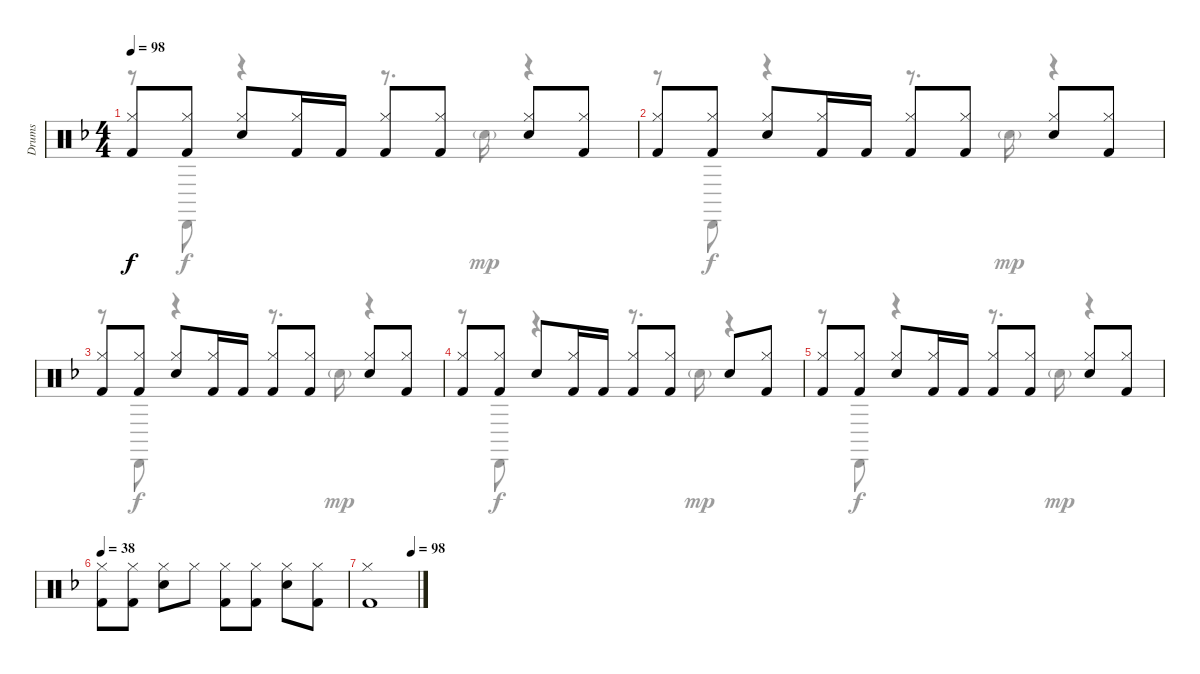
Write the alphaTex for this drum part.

\track ("Drums" "Drums") {instrument percussion}
\staff {score}
\articulation defaults
\voice
\ts (4 4)
\tempo 98
\clef neutral
\ks f
("Hi-Hat (closed)" "Kick (hit) 2").8{dy f} ("Hi-Hat (closed)" "Kick (hit) 2").8 ("Hi-Hat (closed)" "Electric Snare (hit)").8 ("Hi-Hat (closed)" "Kick (hit) 2").16 "Kick (hit) 2".16 ("Hi-Hat (closed)" "Kick (hit) 2").8 ("Hi-Hat (closed)" "Kick (hit) 2").8 ("Hi-Hat (closed)" "Electric Snare (hit)").8 ("Hi-Hat (closed)" "Kick (hit) 2").8 |
("Hi-Hat (closed)" "Kick (hit) 2").8 ("Hi-Hat (closed)" "Kick (hit) 2").8 ("Hi-Hat (closed)" "Electric Snare (hit)").8 ("Hi-Hat (closed)" "Kick (hit) 2").16 "Kick (hit) 2".16 ("Hi-Hat (closed)" "Kick (hit) 2").8 ("Hi-Hat (closed)" "Kick (hit) 2").8 ("Hi-Hat (closed)" "Electric Snare (hit)").8 ("Hi-Hat (closed)" "Kick (hit) 2").8 |
("Hi-Hat (closed)" "Kick (hit) 2").8 ("Hi-Hat (closed)" "Kick (hit) 2").8 ("Hi-Hat (closed)" "Electric Snare (hit)").8 ("Hi-Hat (closed)" "Kick (hit) 2").16 "Kick (hit) 2".16 ("Hi-Hat (closed)" "Kick (hit) 2").8 ("Hi-Hat (closed)" "Kick (hit) 2").8 ("Hi-Hat (closed)" "Electric Snare (hit)").8 ("Hi-Hat (closed)" "Kick (hit) 2").8 |
("Hi-Hat (closed)" "Kick (hit) 2").8 ("Hi-Hat (closed)" "Kick (hit) 2").8 "Electric Snare (hit)".8 ("Hi-Hat (closed)" "Kick (hit) 2").16 "Kick (hit) 2".16 ("Hi-Hat (closed)" "Kick (hit) 2").8 ("Hi-Hat (closed)" "Kick (hit) 2").8 "Electric Snare (hit)".8 ("Hi-Hat (closed)" "Kick (hit) 2").8 |
("Hi-Hat (closed)" "Kick (hit) 2").8 ("Hi-Hat (closed)" "Kick (hit) 2").8 ("Hi-Hat (closed)" "Electric Snare (hit)").8 ("Hi-Hat (closed)" "Kick (hit) 2").16 "Kick (hit) 2".16 ("Hi-Hat (closed)" "Kick (hit) 2").8 ("Hi-Hat (closed)" "Kick (hit) 2").8 ("Hi-Hat (closed)" "Electric Snare (hit)").8 ("Hi-Hat (closed)" "Kick (hit) 2").8 |
\tempo 38
("Hi-Hat (closed)" "Kick (hit) 2").8 ("Hi-Hat (closed)" "Kick (hit) 2").8 ("Hi-Hat (closed)" "Electric Snare (hit)").8 "Hi-Hat (closed)".8 ("Hi-Hat (closed)" "Kick (hit) 2").8 ("Hi-Hat (closed)" "Kick (hit) 2").8 ("Hi-Hat (closed)" "Electric Snare (hit)").8 ("Hi-Hat (closed)" "Kick (hit) 2").8 |
\tempo (98 0.875)
("Hi-Hat (closed)" "Kick (hit) 2").1
\voice
\clef neutral
\ottava regular
\simile none
\ks f
r.8{dy mp} "Cabasa (hit)".8{dy f} r.4 r.8{d} "Metronome (bell)"{g}.16{dy mp} r.4 |
r.8 "Cabasa (hit)".8{dy f} r.4 r.8{d} "Metronome (bell)"{g}.16{dy mp} r.4 |
r.8 "Cabasa (hit)".8{dy f} r.4 r.8{d} "Metronome (bell)"{g}.16{dy mp} r.4 |
r.8 "Cabasa (hit)".8{dy f} r.4 r.8{d} "Metronome (bell)"{g}.16{dy mp} r.4 |
r.8 "Cabasa (hit)".8{dy f} r.4 r.8{d} "Metronome (bell)"{g}.16{dy mp} r.4 |
|
